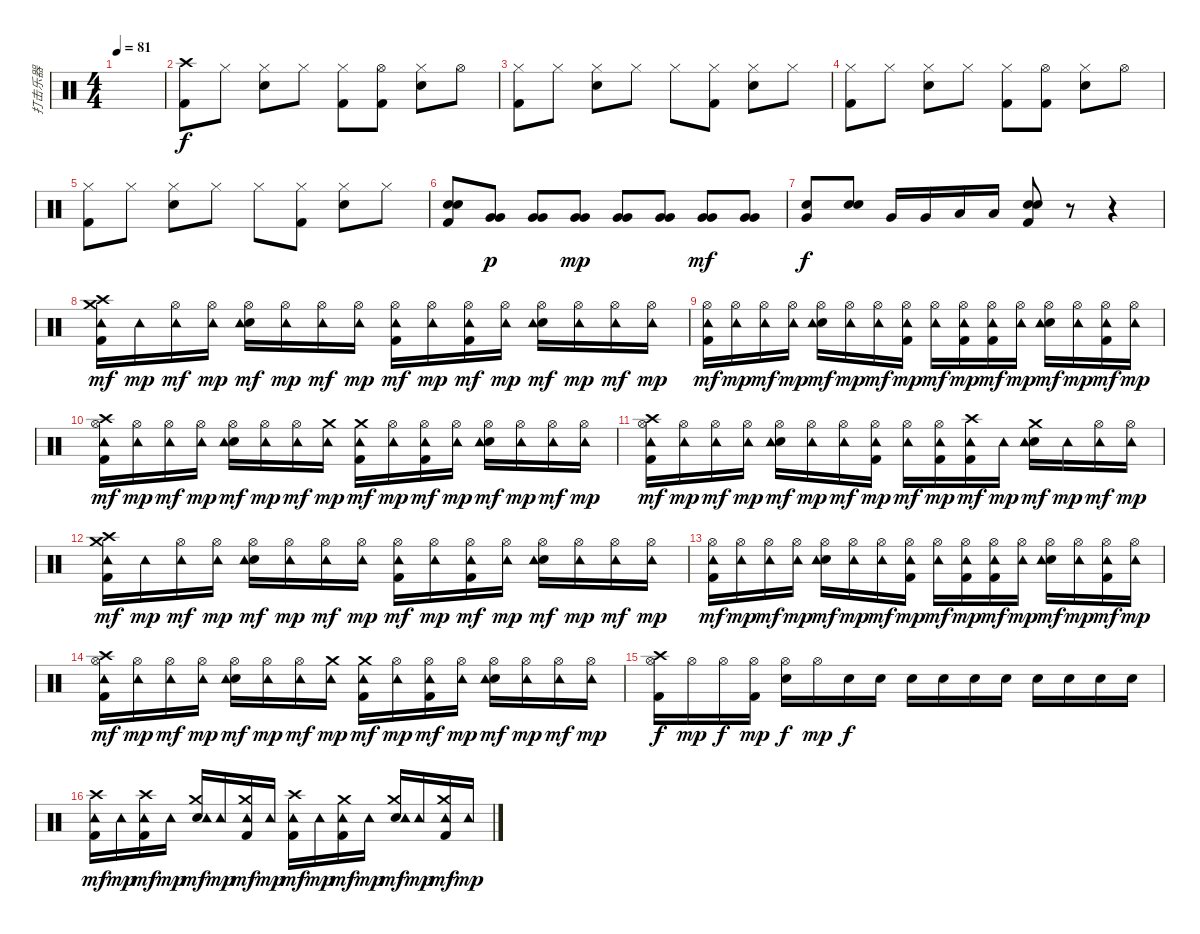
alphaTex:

\track ("打击乐器" "打击乐器") {instrument percussion}
\staff {score}
\articulation defaults
\ts (4 4)
\tempo 81
\clef neutral
\ks c
|
("Crash high (hit)" "Kick (hit) 2").8{dy f} "Hi-Hat (closed)".8 ("Electric Snare (hit)" "Hi-Hat (closed)").8 "Hi-Hat (closed)".8 ("Hi-Hat (closed)" "Kick (hit) 2").8 ("Hi-Hat (open)" "Kick (hit) 2").8 ("Electric Snare (hit)" "Hi-Hat (closed)").8 "Hi-Hat (open)".8 |
("Hi-Hat (closed)" "Kick (hit) 2").8 "Hi-Hat (closed)".8 ("Electric Snare (hit)" "Hi-Hat (closed)").8 "Hi-Hat (closed)".8 "Hi-Hat (closed)".8 ("Hi-Hat (closed)" "Kick (hit) 2").8 ("Electric Snare (hit)" "Hi-Hat (closed)").8 "Hi-Hat (closed)".8 |
("Hi-Hat (closed)" "Kick (hit) 2").8 "Hi-Hat (closed)".8 ("Electric Snare (hit)" "Hi-Hat (closed)").8 "Hi-Hat (closed)".8 ("Hi-Hat (closed)" "Kick (hit) 2").8 ("Hi-Hat (open)" "Kick (hit) 2").8 ("Electric Snare (hit)" "Hi-Hat (closed)").8 "Hi-Hat (open)".8 |
("Hi-Hat (closed)" "Kick (hit) 2").8 "Hi-Hat (closed)".8 ("Electric Snare (hit)" "Hi-Hat (closed)").8 "Hi-Hat (closed)".8 "Hi-Hat (closed)".8 ("Hi-Hat (closed)" "Kick (hit) 2").8 ("Electric Snare (hit)" "Hi-Hat (closed)").8 "Hi-Hat (closed)".8 |
("Electric Snare (hit)" "Electric Snare (hit)" "Kick (hit) 2").8 ("Very Low Tom (hit)" "Very Low Tom (hit)").8{dy p} ("Very Low Tom (hit)" "Very Low Tom (hit)").8 ("Very Low Tom (hit)" "Very Low Tom (hit)").8{dy mp} ("Very Low Tom (hit)" "Very Low Tom (hit)").8 ("Very Low Tom (hit)" "Very Low Tom (hit)").8 ("Very Low Tom (hit)" "Very Low Tom (hit)").8{dy mf} ("Very Low Tom (hit)" "Very Low Tom (hit)").8 |
("Very Low Tom (hit)" "Electric Snare (hit)").8{dy f} ("Electric Snare (hit)" "Electric Snare (hit)").8{bd 120} "Very Low Tom (hit)".16 "Very Low Tom (hit)".16 "Low Floor Tom (hit)".16 "Low Floor Tom (hit)".16 ("Electric Snare (hit)" "Electric Snare (hit)" "Kick (hit) 2").8 r.8 r.4 |
("Crash high (hit)" "Crash medium (hit)" "Tambourine (hit)" "Kick (hit) 2").16{dy mf} "Tambourine (hit)".16{dy mp} ("Hi-Hat (open)" "Tambourine (hit)").16{dy mf} ("Hi-Hat (open)" "Tambourine (hit)").16{dy mp} ("Electric Snare (hit)" "Hi-Hat (open)" "Tambourine (hit)").16{dy mf} ("Hi-Hat (open)" "Tambourine (hit)").16{dy mp} ("Hi-Hat (open)" "Tambourine (hit)").16{dy mf} ("Hi-Hat (open)" "Tambourine (hit)").16{dy mp} ("Hi-Hat (open)" "Tambourine (hit)" "Kick (hit) 2").16{dy mf} ("Hi-Hat (open)" "Tambourine (hit)").16{dy mp} ("Hi-Hat (open)" "Tambourine (hit)" "Kick (hit) 2").16{dy mf} ("Hi-Hat (open)" "Tambourine (hit)").16{dy mp} ("Electric Snare (hit)" "Hi-Hat (open)" "Tambourine (hit)").16{dy mf} ("Hi-Hat (open)" "Tambourine (hit)").16{dy mp} ("Hi-Hat (open)" "Tambourine (hit)").16{dy mf} ("Hi-Hat (open)" "Tambourine (hit)").16{dy mp} |
("Hi-Hat (open)" "Tambourine (hit)" "Kick (hit) 2").16{dy mf} ("Hi-Hat (open)" "Tambourine (hit)").16{dy mp} ("Hi-Hat (open)" "Tambourine (hit)").16{dy mf} ("Hi-Hat (open)" "Tambourine (hit)").16{dy mp} ("Electric Snare (hit)" "Hi-Hat (open)" "Tambourine (hit)").16{dy mf} ("Hi-Hat (open)" "Tambourine (hit)").16{dy mp} ("Hi-Hat (open)" "Tambourine (hit)").16{dy mf} ("Hi-Hat (open)" "Tambourine (hit)" "Kick (hit) 2").16{dy mp} ("Hi-Hat (open)" "Tambourine (hit)").16{dy mf} ("Hi-Hat (open)" "Tambourine (hit)" "Kick (hit) 2").16{dy mp} ("Hi-Hat (open)" "Tambourine (hit)" "Kick (hit) 2").16{dy mf} ("Hi-Hat (open)" "Tambourine (hit)").16{dy mp} ("Electric Snare (hit)" "Hi-Hat (open)" "Tambourine (hit)").16{dy mf} ("Hi-Hat (open)" "Tambourine (hit)").16{dy mp} ("Hi-Hat (open)" "Tambourine (hit)" "Kick (hit) 2").16{dy mf} ("Hi-Hat (open)" "Tambourine (hit)").16{dy mp} |
("Crash high (hit)" "Hi-Hat (open)" "Tambourine (hit)" "Kick (hit) 2").16{dy mf} ("Hi-Hat (open)" "Tambourine (hit)").16{dy mp} ("Hi-Hat (open)" "Tambourine (hit)").16{dy mf} ("Hi-Hat (open)" "Tambourine (hit)").16{dy mp} ("Electric Snare (hit)" "Hi-Hat (open)" "Tambourine (hit)").16{dy mf} ("Hi-Hat (open)" "Tambourine (hit)").16{dy mp} ("Hi-Hat (open)" "Tambourine (hit)").16{dy mf} ("Crash medium (hit)" "Tambourine (hit)").16{dy mp} ("Crash medium (hit)" "Tambourine (hit)" "Kick (hit) 2").16{dy mf} ("Hi-Hat (open)" "Tambourine (hit)").16{dy mp} ("Hi-Hat (open)" "Tambourine (hit)" "Kick (hit) 2").16{dy mf} ("Hi-Hat (open)" "Tambourine (hit)").16{dy mp} ("Electric Snare (hit)" "Hi-Hat (open)" "Tambourine (hit)").16{dy mf} ("Hi-Hat (open)" "Tambourine (hit)").16{dy mp} ("Hi-Hat (open)" "Tambourine (hit)").16{dy mf} ("Hi-Hat (open)" "Tambourine (hit)").16{dy mp} |
("Crash high (hit)" "Hi-Hat (open)" "Tambourine (hit)" "Kick (hit) 2").16{dy mf} ("Hi-Hat (open)" "Tambourine (hit)").16{dy mp} ("Hi-Hat (open)" "Tambourine (hit)").16{dy mf} ("Hi-Hat (open)" "Tambourine (hit)").16{dy mp} ("Electric Snare (hit)" "Hi-Hat (open)" "Tambourine (hit)").16{dy mf} ("Hi-Hat (open)" "Tambourine (hit)").16{dy mp} ("Hi-Hat (open)" "Tambourine (hit)").16{dy mf} ("Hi-Hat (open)" "Tambourine (hit)" "Kick (hit) 2").16{dy mp} ("Hi-Hat (open)" "Tambourine (hit)").16{dy mf} ("Hi-Hat (open)" "Tambourine (hit)" "Kick (hit) 2").16{dy mp} ("Crash high (hit)" "Tambourine (hit)" "Kick (hit) 2").16{dy mf} "Tambourine (hit)".16{dy mp} ("Electric Snare (hit)" "Crash medium (hit)" "Tambourine (hit)").16{dy mf} "Tambourine (hit)".16{dy mp} ("Hi-Hat (open)" "Tambourine (hit)").16{dy mf} ("Hi-Hat (open)" "Tambourine (hit)").16{dy mp} |
("Crash high (hit)" "Crash medium (hit)" "Tambourine (hit)" "Kick (hit) 2").16{dy mf} "Tambourine (hit)".16{dy mp} ("Hi-Hat (open)" "Tambourine (hit)").16{dy mf} ("Hi-Hat (open)" "Tambourine (hit)").16{dy mp} ("Electric Snare (hit)" "Hi-Hat (open)" "Tambourine (hit)").16{dy mf} ("Hi-Hat (open)" "Tambourine (hit)").16{dy mp} ("Hi-Hat (open)" "Tambourine (hit)").16{dy mf} ("Hi-Hat (open)" "Tambourine (hit)").16{dy mp} ("Hi-Hat (open)" "Tambourine (hit)" "Kick (hit) 2").16{dy mf} ("Hi-Hat (open)" "Tambourine (hit)").16{dy mp} ("Hi-Hat (open)" "Tambourine (hit)" "Kick (hit) 2").16{dy mf} ("Hi-Hat (open)" "Tambourine (hit)").16{dy mp} ("Electric Snare (hit)" "Hi-Hat (open)" "Tambourine (hit)").16{dy mf} ("Hi-Hat (open)" "Tambourine (hit)").16{dy mp} ("Hi-Hat (open)" "Tambourine (hit)").16{dy mf} ("Hi-Hat (open)" "Tambourine (hit)").16{dy mp} |
("Hi-Hat (open)" "Tambourine (hit)" "Kick (hit) 2").16{dy mf} ("Hi-Hat (open)" "Tambourine (hit)").16{dy mp} ("Hi-Hat (open)" "Tambourine (hit)").16{dy mf} ("Hi-Hat (open)" "Tambourine (hit)").16{dy mp} ("Electric Snare (hit)" "Hi-Hat (open)" "Tambourine (hit)").16{dy mf} ("Hi-Hat (open)" "Tambourine (hit)").16{dy mp} ("Hi-Hat (open)" "Tambourine (hit)").16{dy mf} ("Hi-Hat (open)" "Tambourine (hit)" "Kick (hit) 2").16{dy mp} ("Hi-Hat (open)" "Tambourine (hit)").16{dy mf} ("Hi-Hat (open)" "Tambourine (hit)" "Kick (hit) 2").16{dy mp} ("Hi-Hat (open)" "Tambourine (hit)" "Kick (hit) 2").16{dy mf} ("Hi-Hat (open)" "Tambourine (hit)").16{dy mp} ("Electric Snare (hit)" "Hi-Hat (open)" "Tambourine (hit)").16{dy mf} ("Hi-Hat (open)" "Tambourine (hit)").16{dy mp} ("Hi-Hat (open)" "Tambourine (hit)" "Kick (hit) 2").16{dy mf} ("Hi-Hat (open)" "Tambourine (hit)").16{dy mp} |
("Crash high (hit)" "Hi-Hat (open)" "Tambourine (hit)" "Kick (hit) 2").16{dy mf} ("Hi-Hat (open)" "Tambourine (hit)").16{dy mp} ("Hi-Hat (open)" "Tambourine (hit)").16{dy mf} ("Hi-Hat (open)" "Tambourine (hit)").16{dy mp} ("Electric Snare (hit)" "Hi-Hat (open)" "Tambourine (hit)").16{dy mf} ("Hi-Hat (open)" "Tambourine (hit)").16{dy mp} ("Hi-Hat (open)" "Tambourine (hit)").16{dy mf} ("Crash medium (hit)" "Tambourine (hit)").16{dy mp} ("Crash medium (hit)" "Tambourine (hit)" "Kick (hit) 2").16{dy mf} ("Hi-Hat (open)" "Tambourine (hit)").16{dy mp} ("Hi-Hat (open)" "Tambourine (hit)" "Kick (hit) 2").16{dy mf} ("Hi-Hat (open)" "Tambourine (hit)").16{dy mp} ("Electric Snare (hit)" "Hi-Hat (open)" "Tambourine (hit)").16{dy mf} ("Hi-Hat (open)" "Tambourine (hit)").16{dy mp} ("Hi-Hat (open)" "Tambourine (hit)").16{dy mf} ("Hi-Hat (open)" "Tambourine (hit)").16{dy mp} |
("Crash high (hit)" "Hi-Hat (open)" "Kick (hit) 2").16{dy f} "Hi-Hat (open)".16{dy mp} "Hi-Hat (open)".16{dy f} ("Hi-Hat (open)" "Kick (hit) 2").16{dy mp} ("Electric Snare (hit)" "Hi-Hat (open)").16{dy f} "Hi-Hat (open)".16{dy mp} "Electric Snare (hit)".16{dy f} "Electric Snare (hit)".16 "Electric Snare (hit)".16 "Electric Snare (hit)".16 "Electric Snare (hit)".16 "Electric Snare (hit)".16 "Electric Snare (hit)".16 "Electric Snare (hit)".16 "Electric Snare (hit)".16 "Electric Snare (hit)".16 |
("Crash high (hit)" "Tambourine (hit)" "Kick (hit) 2").16{dy mf} "Tambourine (hit)".16{dy mp} ("Crash high (hit)" "Tambourine (hit)" "Kick (hit) 2").16{dy mf} "Tambourine (hit)".16{dy mp} ("Electric Snare (hit)" "Crash medium (hit)" "Tambourine (hit)").16{dy mf} "Tambourine (hit)".16{dy mp} ("Crash medium (hit)" "Tambourine (hit)" "Kick (hit) 2").16{dy mf} "Tambourine (hit)".16{dy mp} ("Crash high (hit)" "Tambourine (hit)" "Kick (hit) 2").16{dy mf} "Tambourine (hit)".16{dy mp} ("Crash medium (hit)" "Tambourine (hit)" "Kick (hit) 2").16{dy mf} "Tambourine (hit)".16{dy mp} ("Electric Snare (hit)" "Crash medium (hit)" "Tambourine (hit)").16{dy mf} "Tambourine (hit)".16{dy mp} ("Crash medium (hit)" "Tambourine (hit)" "Kick (hit) 2").16{dy mf} "Tambourine (hit)".16{dy mp}
